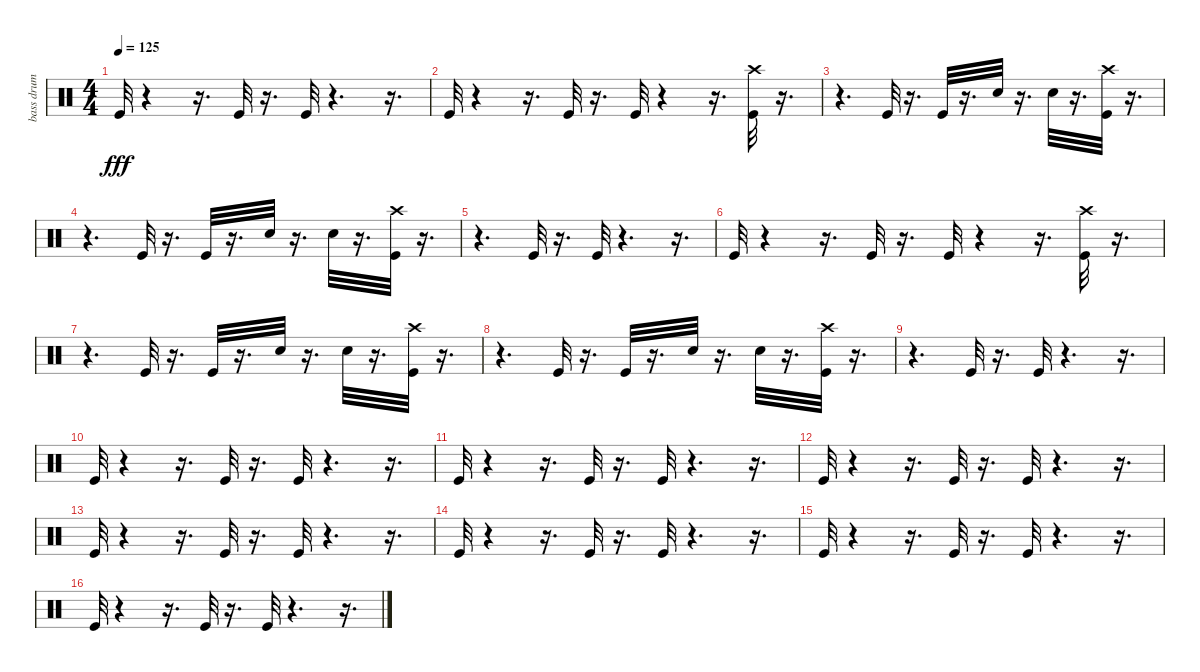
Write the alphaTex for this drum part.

\track ("bass drum" "bass drum") {instrument percussion}
\staff {score}
\articulation defaults
\ts (4 4)
\tempo 125
\clef neutral
\ks c "Kick (hit)".32{dy fff}
r.4 r.16{d} "Kick (hit)".32 r.16{d} "Kick (hit)".32 r.4{d} r.16{d} |
"Kick (hit)".32 r.4 r.16{d} "Kick (hit)".32 r.16{d} "Kick (hit)".32 r.4 r.16{d} ("Crash high (hit)" "Kick (hit)").32 r.16{d} |
r.4{d} "Kick (hit)".32 r.16{d} "Kick (hit)".32 r.16{d} "Electric Snare (hit)".32 r.16{d} "Electric Snare (hit)".32 r.16{d} ("Crash high (hit)" "Kick (hit)").32 r.16{d} |
r.4{d} "Kick (hit)".32 r.16{d} "Kick (hit)".32 r.16{d} "Electric Snare (hit)".32 r.16{d} "Electric Snare (hit)".32 r.16{d} ("Crash high (hit)" "Kick (hit)").32 r.16{d} |
r.4{d} "Kick (hit)".32 r.16{d} "Kick (hit)".32 r.4{d} r.16{d} |
"Kick (hit)".32 r.4 r.16{d} "Kick (hit)".32 r.16{d} "Kick (hit)".32 r.4 r.16{d} ("Crash high (hit)" "Kick (hit)").32 r.16{d} |
r.4{d} "Kick (hit)".32 r.16{d} "Kick (hit)".32 r.16{d} "Electric Snare (hit)".32 r.16{d} "Electric Snare (hit)".32 r.16{d} ("Kick (hit)" "Crash high (hit)").32 r.16{d} |
r.4{d} "Kick (hit)".32 r.16{d} "Kick (hit)".32 r.16{d} "Electric Snare (hit)".32 r.16{d} "Electric Snare (hit)".32 r.16{d} ("Crash high (hit)" "Kick (hit)").32 r.16{d} |
r.4{d} "Kick (hit)".32 r.16{d} "Kick (hit)".32 r.4{d} r.16{d} |
"Kick (hit)".32 r.4 r.16{d} "Kick (hit)".32 r.16{d} "Kick (hit)".32 r.4{d} r.16{d} |
"Kick (hit)".32 r.4 r.16{d} "Kick (hit)".32 r.16{d} "Kick (hit)".32 r.4{d} r.16{d} |
"Kick (hit)".32 r.4 r.16{d} "Kick (hit)".32 r.16{d} "Kick (hit)".32 r.4{d} r.16{d} |
"Kick (hit)".32 r.4 r.16{d} "Kick (hit)".32 r.16{d} "Kick (hit)".32 r.4{d} r.16{d} |
"Kick (hit)".32 r.4 r.16{d} "Kick (hit)".32 r.16{d} "Kick (hit)".32 r.4{d} r.16{d} |
"Kick (hit)".32 r.4 r.16{d} "Kick (hit)".32 r.16{d} "Kick (hit)".32 r.4{d} r.16{d} |
"Kick (hit)".32 r.4 r.16{d} "Kick (hit)".32 r.16{d} "Kick (hit)".32 r.4{d} r.16{d}
